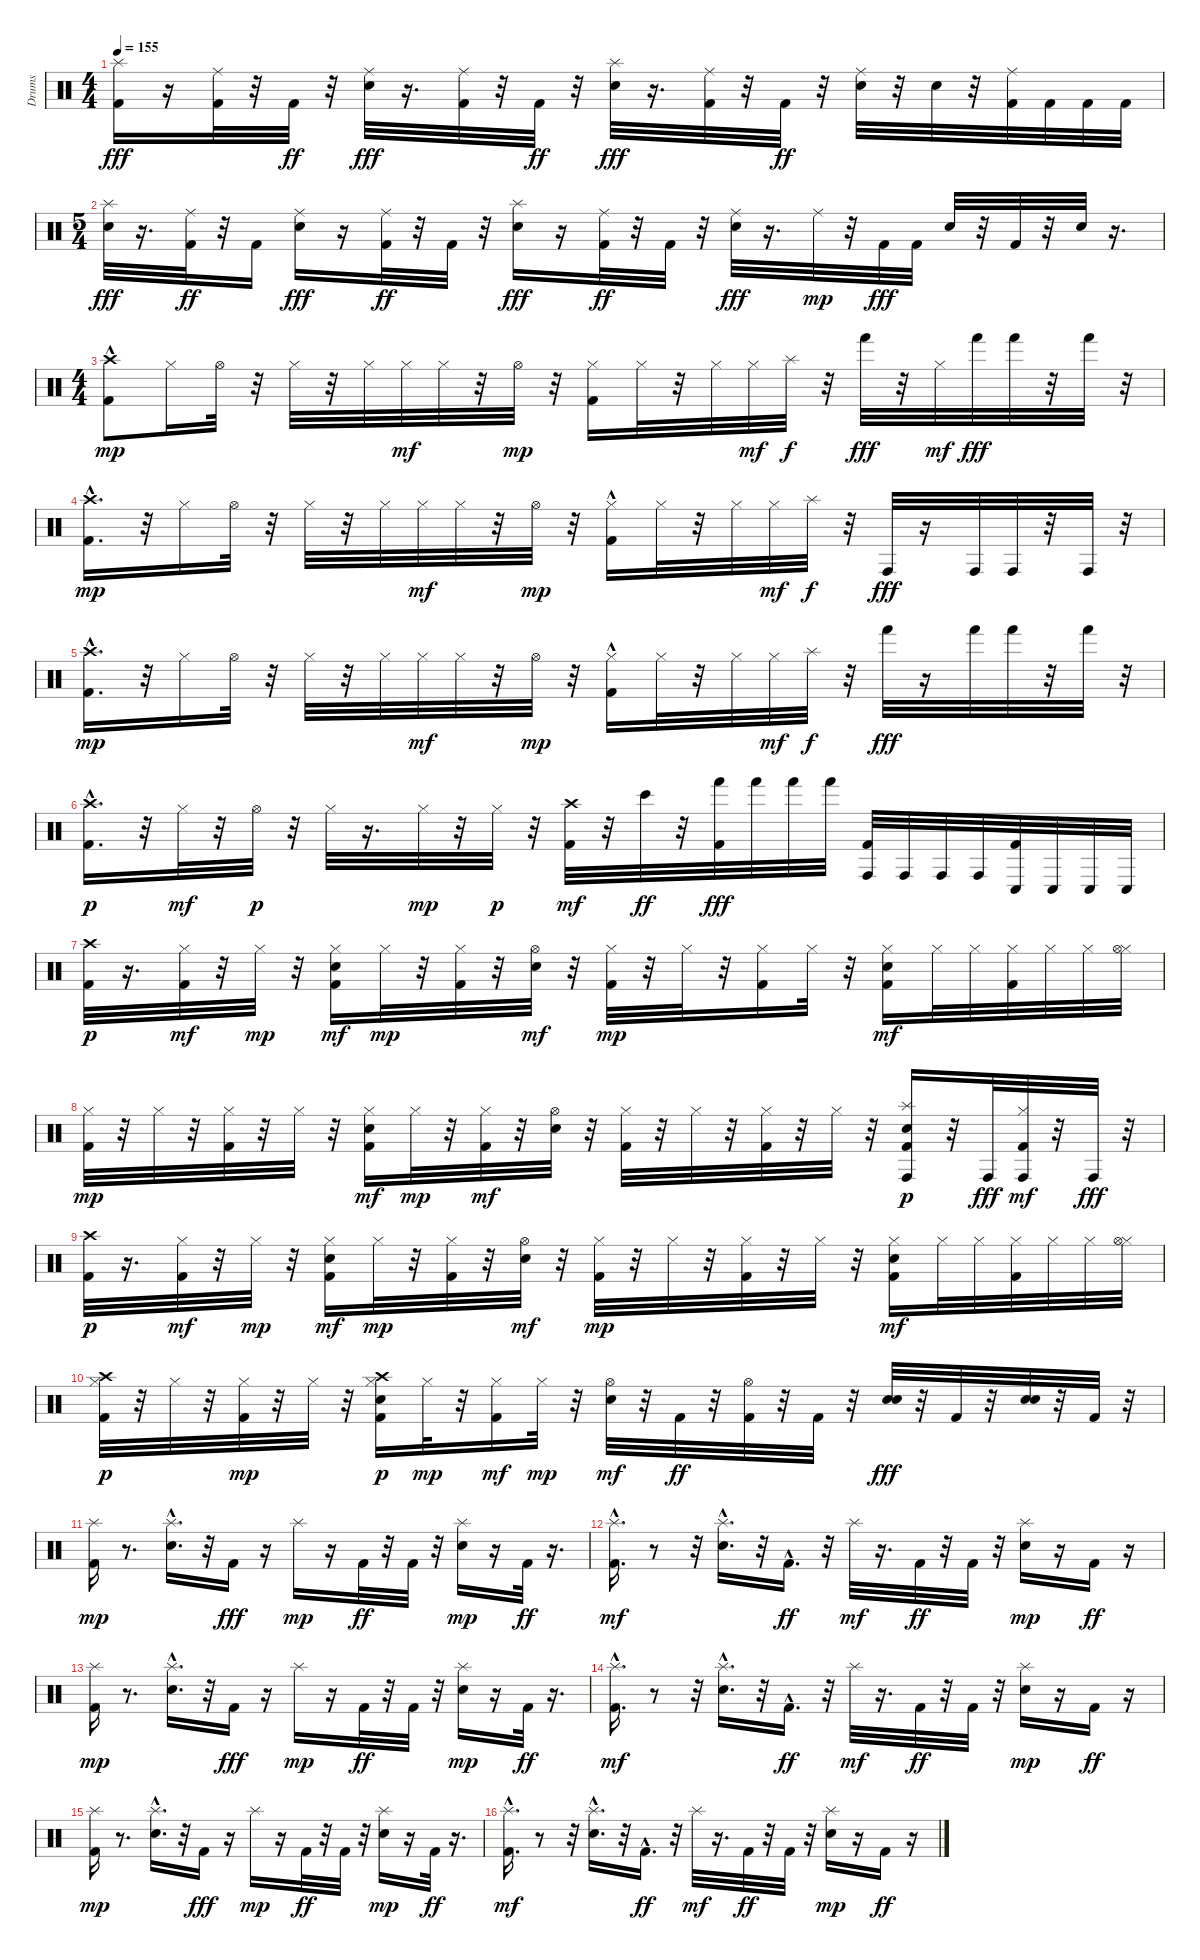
\track ("Drums" "Drums") {instrument percussion}
\staff {score}
\articulation defaults
\ts (4 4)
\tempo 155
\clef neutral
\ks c
("Splash (hit)" "Kick (hit) 2").16{dy fff} r.16 ("Ride (middle)" "Kick (hit) 2").32 r.32 "Kick (hit) 2".32{dy ff} r.32 ("Ride (middle)" "Electric Snare (hit)").32{dy fff} r.16{d} ("Ride (middle)" "Kick (hit) 2").32 r.32 "Kick (hit) 2".32{dy ff} r.32 ("Splash (hit)" "Electric Snare (hit)").32{dy fff} r.16{d} ("Ride (middle)" "Kick (hit) 2").32 r.32 "Kick (hit) 2".32{dy ff} r.32 ("Ride (middle)" "Electric Snare (hit)").32 r.32 "Electric Snare (hit)".32 r.32 ("Ride (middle)" "Kick (hit) 2").32 "Kick (hit) 2".32 "Kick (hit) 2".32 "Kick (hit) 2".32 |
\ts (5 4)
("Splash (hit)" "Electric Snare (hit)").32{dy fff} r.16{d} ("Ride (middle)" "Kick (hit) 2").32{dy ff} r.32 "Kick (hit) 2".16 ("Ride (middle)" "Electric Snare (hit)").16{dy fff} r.16 ("Ride (middle)" "Kick (hit) 2").32{dy ff} r.32 "Kick (hit) 2".32 r.32 ("Splash (hit)" "Electric Snare (hit)").16{dy fff} r.16 ("Ride (middle)" "Kick (hit) 2").32{dy ff} r.32 "Kick (hit) 2".32 r.32 ("Ride (middle)" "Electric Snare (hit)").32{dy fff} r.16{d} "Ride (middle)".32{dy mp} r.32 "Kick (hit) 2".32{dy fff} "Kick (hit) 2".32 "Electric Snare (hit)".32 r.32 "Kick (hit) 2".32 r.32 "Electric Snare (hit)".32 r.16{d} |
\ts (4 4)
("Kick (hit) 2"{hac} "Crash high (hit)").8{dy mp} "Hi-Hat (closed)".16 "Hi-Hat (open)".32 r.32 "Hi-Hat (closed)".32 r.32 "Hi-Hat (closed)".32 "Hi-Hat (closed)".32{dy mf} "Hi-Hat (closed)".32 r.32 "Hi-Hat (open)".32{dy mp} r.32 ("Kick (hit) 2" "Hi-Hat (closed)").16 "Hi-Hat (closed)".32 r.32 "Hi-Hat (closed)".32 "Hi-Hat (closed)".32{dy mf} "Splash (hit)".32{dy f} r.32 "Hand (hit)".32{dy fff} r.32 "Hi-Hat (closed)".32{dy mf} "Hand (hit)".32{dy fff} "Hand (hit)".32 r.32 "Hand (hit)".32 r.32 |
("Kick (hit) 2"{hac} "Crash high (hit)").16{d dy mp} r.32 "Hi-Hat (closed)".16 "Hi-Hat (open)".32 r.32 "Hi-Hat (closed)".32 r.32 "Hi-Hat (closed)".32 "Hi-Hat (closed)".32{dy mf} "Hi-Hat (closed)".32 r.32 "Hi-Hat (open)".32{dy mp} r.32 ("Kick (hit) 2"{hac} "Hi-Hat (closed)").16 "Hi-Hat (closed)".32 r.32 "Hi-Hat (closed)".32 "Hi-Hat (closed)".32{dy mf} "Splash (hit)".32{dy f} r.32 "Conga high (hit)".32{dy fff} r.16 "Conga high (hit)".32 "Conga high (hit)".32 r.32 "Conga high (hit)".32 r.32 |
("Kick (hit) 2"{hac} "Crash high (hit)").16{d dy mp} r.32 "Hi-Hat (closed)".16 "Hi-Hat (open)".32 r.32 "Hi-Hat (closed)".32 r.32 "Hi-Hat (closed)".32 "Hi-Hat (closed)".32{dy mf} "Hi-Hat (closed)".32 r.32 "Hi-Hat (open)".32{dy mp} r.32 ("Kick (hit) 2"{hac} "Hi-Hat (closed)").16 "Hi-Hat (closed)".32 r.32 "Hi-Hat (closed)".32 "Hi-Hat (closed)".32{dy mf} "Splash (hit)".32{dy f} r.32 "Hand (hit)".32{dy fff} r.16 "Hand (hit)".32 "Hand (hit)".32 r.32 "Hand (hit)".32 r.32 |
("Kick (hit) 2"{hac} "Crash high (hit)").16{d dy p} r.32 "Hi-Hat (closed)".32{dy mf} r.32 "Hi-Hat (open)".32{dy p} r.32 "Hi-Hat (closed)".32 r.16{d} "Hi-Hat (closed)".32{dy mp} r.32 "Hi-Hat (closed)".32{dy p} r.32 ("Kick (hit) 2" "Crash high (hit)").32{dy mf} r.32 "Bongo High (hit)".32{dy ff volume 11} r.32 ("Hand (hit)" "Kick (hit) 2").32{dy fff} "Hand (hit)".32 "Hand (hit)".32 "Hand (hit)".32 ("Conga high (hit)" "Kick (hit) 2").32 "Conga high (hit)".32 "Conga high (hit)".32 "Conga high (hit)".32 ("Conga low (hit)" "Kick (hit) 2").32 "Conga low (hit)".32 "Conga low (hit)".32 "Conga low (hit)".32 |
("Kick (hit) 2" "Crash high (hit)").32{dy p volume 15} r.16{d} ("Kick (hit) 2" "Hi-Hat (closed)").32{dy mf} r.32 "Hi-Hat (closed)".32{dy mp} r.32 ("Kick (hit) 2" "Electric Snare (hit)" "Hi-Hat (closed)").16{dy mf} "Hi-Hat (closed)".32{dy mp} r.32 ("Kick (hit) 2" "Hi-Hat (closed)").32 r.32 ("Electric Snare (hit)" "Hi-Hat (open)").32{dy mf} r.32 ("Kick (hit) 2" "Hi-Hat (closed)").32{dy mp} r.32 "Hi-Hat (closed)".32 r.32 ("Kick (hit) 2" "Hi-Hat (closed)").16 "Hi-Hat (closed)".32 r.32 ("Kick (hit) 2" "Electric Snare (hit)" "Hi-Hat (closed)").16{dy mf} "Hi-Hat (closed)".32 "Hi-Hat (closed)".32 ("Kick (hit) 2" "Hi-Hat (closed)").32 "Hi-Hat (closed)".32 "Hi-Hat (closed)".32 ("Hi-Hat (closed)" "Hi-Hat (open)").32 |
("Kick (hit) 2" "Hi-Hat (closed)").32{dy mp} r.32 "Hi-Hat (closed)".32 r.32 ("Kick (hit) 2" "Hi-Hat (closed)").32 r.32 "Hi-Hat (closed)".32 r.32 ("Electric Snare (hit)" "Kick (hit) 2" "Hi-Hat (closed)").16{dy mf} "Hi-Hat (closed)".32{dy mp} r.32 ("Kick (hit) 2" "Hi-Hat (closed)").32{dy mf} r.32 ("Electric Snare (hit)" "Hi-Hat (open)").32 r.32 ("Kick (hit) 2" "Hi-Hat (closed)").32 r.32 "Hi-Hat (closed)".32 r.32 ("Kick (hit) 2" "Hi-Hat (closed)").32 r.32 "Hi-Hat (closed)".32 r.32 ("Kick (hit) 2" "Conga high (hit)" "Electric Snare (hit)" "Splash (hit)").16{dy p} r.32 "Conga high (hit)".32{dy fff} ("Conga high (hit)" "Kick (hit) 2" "Hi-Hat (closed)").32{dy mf} r.32 "Conga high (hit)".32{dy fff} r.32 |
("Kick (hit) 2" "Crash high (hit)").32{dy p} r.16{d} ("Kick (hit) 2" "Hi-Hat (closed)").32{dy mf} r.32 "Hi-Hat (closed)".32{dy mp} r.32 ("Electric Snare (hit)" "Kick (hit) 2" "Hi-Hat (closed)").16{dy mf} "Hi-Hat (closed)".32{dy mp} r.32 ("Kick (hit) 2" "Hi-Hat (closed)").32 r.32 ("Electric Snare (hit)" "Hi-Hat (open)").32{dy mf} r.32 ("Kick (hit) 2" "Hi-Hat (closed)").32{dy mp} r.32 "Hi-Hat (closed)".32 r.32 ("Kick (hit) 2" "Hi-Hat (closed)").32 r.32 "Hi-Hat (closed)".32 r.32 ("Electric Snare (hit)" "Kick (hit) 2" "Hi-Hat (closed)").16{dy mf} "Hi-Hat (closed)".32 "Hi-Hat (closed)".32 ("Kick (hit) 2" "Hi-Hat (closed)").32 "Hi-Hat (closed)".32 "Hi-Hat (closed)".32 ("Hi-Hat (closed)" "Hi-Hat (open)").32 |
("Kick (hit) 2" "Crash high (hit)" "Hi-Hat (closed)").32{dy p} r.32 "Hi-Hat (closed)".32 r.32 ("Kick (hit) 2" "Hi-Hat (closed)").32{dy mp} r.32 "Hi-Hat (closed)".32 r.32 ("Electric Snare (hit)" "Kick (hit) 2" "Hi-Hat (closed)" "Crash high (hit)").16{dy p} "Hi-Hat (closed)".32{dy mp} r.32 ("Kick (hit) 2" "Hi-Hat (closed)").16{dy mf} "Hi-Hat (closed)".32{dy mp} r.32 ("Electric Snare (hit)" "Hi-Hat (open)").32{dy mf} r.32 "Kick (hit) 2".32{dy ff} r.32 ("Kick (hit) 2" "Hi-Hat (open)").32 r.32 "Kick (hit) 2".32 r.32 ("Electric Snare (hit)" "Snare (hit) 2").32{dy fff} r.32 "Kick (hit) 2".32 r.32 ("Electric Snare (hit)" "Snare (hit) 2").32 r.32 "Kick (hit) 2".32 r.32 |
("Kick (hit) 2" "Splash (hit)").16{dy mp} r.8{d} ("Electric Snare (hit)"{hac} "Splash (hit)").16{d} r.32 "Kick (hit) 2".16{dy fff} r.16 "Splash (hit)".16{dy mp} r.16 "Kick (hit) 2".32{dy ff} r.32 "Kick (hit) 2".32 r.32 ("Electric Snare (hit)" "Splash (hit)").16{dy mp} r.16 "Kick (hit) 2".32{dy ff} r.16{d} |
("Kick (hit) 2"{hac} "Splash (hit)").16{d dy mf} r.8 r.32 ("Electric Snare (hit)"{hac} "Splash (hit)").16{d} r.32 "Kick (hit) 2"{hac}.16{d dy ff} r.32 "Splash (hit)".32{dy mf} r.16{d} "Kick (hit) 2".32{dy ff} r.32 "Kick (hit) 2".32 r.32 ("Electric Snare (hit)" "Splash (hit)").16{dy mp} r.16 "Kick (hit) 2".16{dy ff} r.16 |
("Kick (hit) 2" "Splash (hit)").16{dy mp} r.8{d} ("Electric Snare (hit)"{hac} "Splash (hit)").16{d} r.32 "Kick (hit) 2".16{dy fff} r.16 "Splash (hit)".16{dy mp} r.16 "Kick (hit) 2".32{dy ff} r.32 "Kick (hit) 2".32 r.32 ("Electric Snare (hit)" "Splash (hit)").16{dy mp} r.16 "Kick (hit) 2".32{dy ff} r.16{d} |
("Kick (hit) 2"{hac} "Splash (hit)").16{d dy mf} r.8 r.32 ("Electric Snare (hit)"{hac} "Splash (hit)").16{d} r.32 "Kick (hit) 2"{hac}.16{d dy ff} r.32 "Splash (hit)".32{dy mf} r.16{d} "Kick (hit) 2".32{dy ff} r.32 "Kick (hit) 2".32 r.32 ("Electric Snare (hit)" "Splash (hit)").16{dy mp} r.16 "Kick (hit) 2".16{dy ff} r.16 |
("Kick (hit) 2" "Splash (hit)").16{dy mp} r.8{d} ("Electric Snare (hit)"{hac} "Splash (hit)").16{d} r.32 "Kick (hit) 2".16{dy fff} r.16 "Splash (hit)".16{dy mp} r.16 "Kick (hit) 2".32{dy ff} r.32 "Kick (hit) 2".32 r.32 ("Electric Snare (hit)" "Splash (hit)").16{dy mp} r.16 "Kick (hit) 2".32{dy ff} r.16{d} |
("Kick (hit) 2"{hac} "Splash (hit)").16{d dy mf} r.8 r.32 ("Electric Snare (hit)"{hac} "Splash (hit)").16{d} r.32 "Kick (hit) 2"{hac}.16{d dy ff} r.32 "Splash (hit)".32{dy mf} r.16{d} "Kick (hit) 2".32{dy ff} r.32 "Kick (hit) 2".32 r.32 ("Electric Snare (hit)" "Splash (hit)").16{dy mp} r.16 "Kick (hit) 2".16{dy ff} r.16
